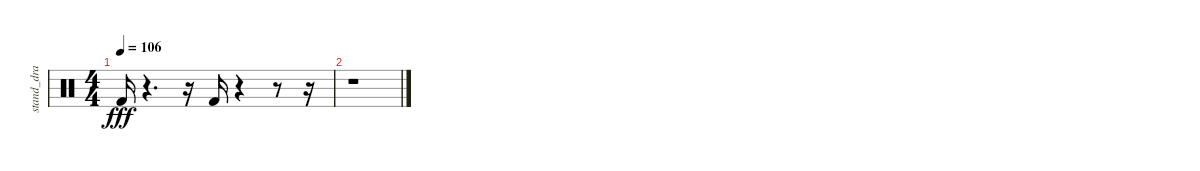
\track ("stand_dra" "stand_dra") {instrument percussion}
\staff {score}
\articulation defaults
\ts (4 4)
\tempo 106
\clef neutral
\ks c "Kick (hit) 2".16{dy fff}
r.4{d} r.16 "Kick (hit) 2".16 r.4 r.8 r.16 |
r.1
